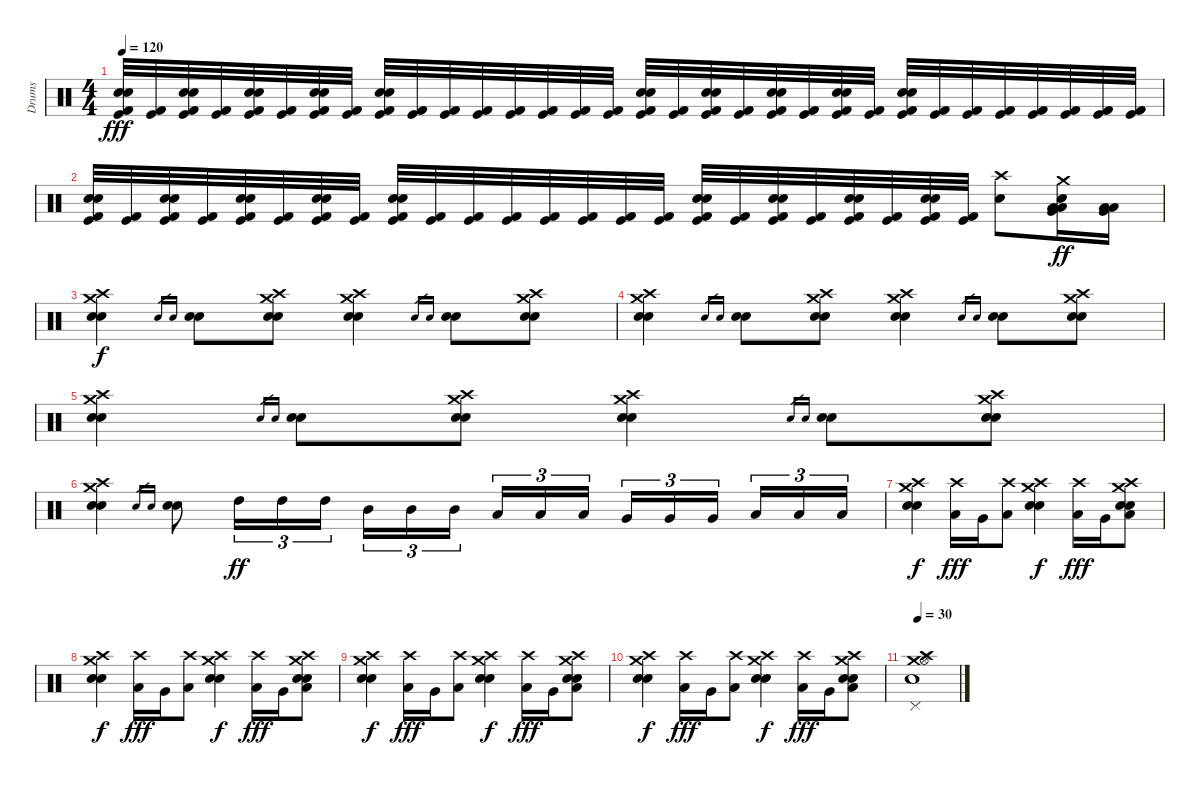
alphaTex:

\track ("Drums" "Drums") {instrument percussion}
\staff {score}
\articulation defaults
\ts (4 4)
\tempo 120
\clef neutral
\ks c
("Electric Snare (hit)" "Snare (hit) 2" "Kick (hit)" "Kick (hit) 2").32{dy fff} ("Kick (hit)" "Kick (hit) 2").32 ("Snare (hit) 2" "Electric Snare (hit)" "Kick (hit)" "Kick (hit) 2").32 ("Kick (hit)" "Kick (hit) 2").32 ("Snare (hit) 2" "Electric Snare (hit)" "Kick (hit)" "Kick (hit) 2").32 ("Kick (hit)" "Kick (hit) 2").32 ("Snare (hit) 2" "Electric Snare (hit)" "Kick (hit)" "Kick (hit) 2").32 ("Kick (hit)" "Kick (hit) 2").32 ("Snare (hit) 2" "Electric Snare (hit)" "Kick (hit)" "Kick (hit) 2").32 ("Kick (hit)" "Kick (hit) 2").32 ("Kick (hit)" "Kick (hit) 2").32 ("Kick (hit)" "Kick (hit) 2").32 ("Kick (hit)" "Kick (hit) 2").32 ("Kick (hit)" "Kick (hit) 2").32 ("Kick (hit)" "Kick (hit) 2").32 ("Kick (hit)" "Kick (hit) 2").32 ("Snare (hit) 2" "Electric Snare (hit)" "Kick (hit)" "Kick (hit) 2").32 ("Kick (hit)" "Kick (hit) 2").32 ("Snare (hit) 2" "Electric Snare (hit)" "Kick (hit)" "Kick (hit) 2").32 ("Kick (hit)" "Kick (hit) 2").32 ("Snare (hit) 2" "Electric Snare (hit)" "Kick (hit)" "Kick (hit) 2").32 ("Kick (hit)" "Kick (hit) 2").32 ("Snare (hit) 2" "Electric Snare (hit)" "Kick (hit)" "Kick (hit) 2").32 ("Kick (hit)" "Kick (hit) 2").32 ("Snare (hit) 2" "Electric Snare (hit)" "Kick (hit)" "Kick (hit) 2").32 ("Kick (hit)" "Kick (hit) 2").32 ("Kick (hit)" "Kick (hit) 2").32 ("Kick (hit)" "Kick (hit) 2").32 ("Kick (hit)" "Kick (hit) 2").32 ("Kick (hit)" "Kick (hit) 2").32 ("Kick (hit)" "Kick (hit) 2").32 ("Kick (hit)" "Kick (hit) 2").32 |
("Electric Snare (hit)" "Snare (hit) 2" "Kick (hit)" "Kick (hit) 2").32 ("Kick (hit)" "Kick (hit) 2").32 ("Snare (hit) 2" "Electric Snare (hit)" "Kick (hit)" "Kick (hit) 2").32 ("Kick (hit)" "Kick (hit) 2").32 ("Snare (hit) 2" "Electric Snare (hit)" "Kick (hit)" "Kick (hit) 2").32 ("Kick (hit)" "Kick (hit) 2").32 ("Snare (hit) 2" "Electric Snare (hit)" "Kick (hit)" "Kick (hit) 2").32 ("Kick (hit)" "Kick (hit) 2").32 ("Snare (hit) 2" "Electric Snare (hit)" "Kick (hit)" "Kick (hit) 2").32 ("Kick (hit)" "Kick (hit) 2").32 ("Kick (hit)" "Kick (hit) 2").32 ("Kick (hit)" "Kick (hit) 2").32 ("Kick (hit)" "Kick (hit) 2").32 ("Kick (hit)" "Kick (hit) 2").32 ("Kick (hit)" "Kick (hit) 2").32 ("Kick (hit)" "Kick (hit) 2").32 ("Snare (hit) 2" "Electric Snare (hit)" "Kick (hit)" "Kick (hit) 2").32 ("Kick (hit)" "Kick (hit) 2").32 ("Snare (hit) 2" "Electric Snare (hit)" "Kick (hit)" "Kick (hit) 2").32 ("Kick (hit)" "Kick (hit) 2").32 ("Snare (hit) 2" "Electric Snare (hit)" "Kick (hit)" "Kick (hit) 2").32 ("Kick (hit)" "Kick (hit) 2").32 ("Snare (hit) 2" "Electric Snare (hit)" "Kick (hit)" "Kick (hit) 2").32 ("Kick (hit)" "Kick (hit) 2").32 ("Crash high (hit)" "Snare (hit) 2").8 ("Crash medium (hit)" "Low Floor Tom (hit)" "Electric Snare (hit)" "Very Low Tom (hit)" "Low Tom (hit)").16{dy ff} ("Low Floor Tom (hit)" "Very Low Tom (hit)" "Low Tom (hit)").16 |
("Crash high (hit)" "Crash medium (hit)" "Electric Snare (hit)" "Snare (hit) 2").4{dy f} "Snare (hit) 2".16{gr} "Electric Snare (hit)".16{gr} ("Snare (hit) 2" "Electric Snare (hit)").8 ("Crash high (hit)" "Crash medium (hit)" "Electric Snare (hit)" "Snare (hit) 2").8 ("Crash high (hit)" "Crash medium (hit)" "Electric Snare (hit)" "Snare (hit) 2").4 "Snare (hit) 2".16{gr} "Electric Snare (hit)".16{gr} ("Snare (hit) 2" "Electric Snare (hit)").8 ("Crash high (hit)" "Crash medium (hit)" "Electric Snare (hit)" "Snare (hit) 2").8 |
("Crash high (hit)" "Crash medium (hit)" "Electric Snare (hit)" "Snare (hit) 2").4 "Snare (hit) 2".16{gr} "Electric Snare (hit)".16{gr} ("Snare (hit) 2" "Electric Snare (hit)").8 ("Crash high (hit)" "Crash medium (hit)" "Electric Snare (hit)" "Snare (hit) 2").8 ("Crash high (hit)" "Crash medium (hit)" "Electric Snare (hit)" "Snare (hit) 2").4 "Snare (hit) 2".16{gr} "Electric Snare (hit)".16{gr} ("Snare (hit) 2" "Electric Snare (hit)").8 ("Crash high (hit)" "Crash medium (hit)" "Electric Snare (hit)" "Snare (hit) 2").8 |
("Crash high (hit)" "Crash medium (hit)" "Electric Snare (hit)" "Snare (hit) 2").4 "Snare (hit) 2".16{gr} "Electric Snare (hit)".16{gr} ("Snare (hit) 2" "Electric Snare (hit)").8 ("Crash high (hit)" "Crash medium (hit)" "Electric Snare (hit)" "Snare (hit) 2").8 ("Crash high (hit)" "Crash medium (hit)" "Electric Snare (hit)" "Snare (hit) 2").4 "Snare (hit) 2".16{gr} "Electric Snare (hit)".16{gr} ("Snare (hit) 2" "Electric Snare (hit)").8 ("Crash high (hit)" "Crash medium (hit)" "Electric Snare (hit)" "Snare (hit) 2").8 |
("Crash high (hit)" "Crash medium (hit)" "Electric Snare (hit)" "Snare (hit) 2").4 "Snare (hit) 2".16{gr} "Electric Snare (hit)".16{gr} ("Snare (hit) 2" "Electric Snare (hit)").8 "High Tom (hit)".16{tu (3 2) dy ff} "High Tom (hit)".16{tu (3 2)} "High Tom (hit)".16{tu (3 2)} "Mid Tom (hit)".16{tu (3 2)} "Mid Tom (hit)".16{tu (3 2)} "Mid Tom (hit)".16{tu (3 2) beam splitsecondary} "Low Tom (hit)".16{tu (3 2)} "Low Tom (hit)".16{tu (3 2)} "Low Tom (hit)".16{tu (3 2)} "Very Low Tom (hit)".16{tu (3 2)} "Very Low Tom (hit)".16{tu (3 2)} "Very Low Tom (hit)".16{tu (3 2) beam splitsecondary} "Low Floor Tom (hit)".16{tu (3 2)} "Low Floor Tom (hit)".16{tu (3 2)} "Low Floor Tom (hit)".16{tu (3 2)} |
("Crash high (hit)" "Crash medium (hit)" "Electric Snare (hit)" "Snare (hit) 2").4{dy f} ("Crash high (hit)" "Low Tom (hit)").16{dy fff} "Very Low Tom (hit)".16 ("Crash high (hit)" "Low Floor Tom (hit)").8 ("Crash high (hit)" "Crash medium (hit)" "Snare (hit) 2" "Electric Snare (hit)").4{dy f} ("Crash high (hit)" "Low Tom (hit)").16{dy fff} "Very Low Tom (hit)".16 ("Crash high (hit)" "Crash medium (hit)" "Snare (hit) 2" "Electric Snare (hit)" "Low Floor Tom (hit)").8 |
("Crash high (hit)" "Crash medium (hit)" "Electric Snare (hit)" "Snare (hit) 2").4{dy f} ("Crash high (hit)" "Low Tom (hit)").16{dy fff} "Very Low Tom (hit)".16 ("Crash high (hit)" "Low Floor Tom (hit)").8 ("Crash high (hit)" "Crash medium (hit)" "Snare (hit) 2" "Electric Snare (hit)").4{dy f} ("Crash high (hit)" "Low Tom (hit)").16{dy fff} "Very Low Tom (hit)".16 ("Crash high (hit)" "Crash medium (hit)" "Snare (hit) 2" "Electric Snare (hit)" "Low Floor Tom (hit)").8 |
("Crash high (hit)" "Crash medium (hit)" "Electric Snare (hit)" "Snare (hit) 2").4{dy f} ("Crash high (hit)" "Low Tom (hit)").16{dy fff} "Very Low Tom (hit)".16 ("Crash high (hit)" "Low Floor Tom (hit)").8 ("Crash high (hit)" "Crash medium (hit)" "Snare (hit) 2" "Electric Snare (hit)").4{dy f} ("Crash high (hit)" "Low Tom (hit)").16{dy fff} "Very Low Tom (hit)".16 ("Crash high (hit)" "Crash medium (hit)" "Snare (hit) 2" "Electric Snare (hit)" "Low Floor Tom (hit)").8 |
("Crash high (hit)" "Crash medium (hit)" "Electric Snare (hit)" "Snare (hit) 2").4{dy f} ("Crash high (hit)" "Low Tom (hit)").16{dy fff} "Very Low Tom (hit)".16 ("Crash high (hit)" "Low Floor Tom (hit)").8 ("Crash high (hit)" "Crash medium (hit)" "Snare (hit) 2" "Electric Snare (hit)").4{dy f} ("Crash high (hit)" "Low Tom (hit)").16{dy fff} "Very Low Tom (hit)".16 ("Crash high (hit)" "Crash medium (hit)" "Snare (hit) 2" "Electric Snare (hit)" "Low Floor Tom (hit)").8 |
\tempo 30
("Crash high (hit)" "Crash medium (hit)" "Hi-Hat (open)" "Splash (hit)" "Pedal Hi-Hat (hit)" "Electric Snare (hit)").1
